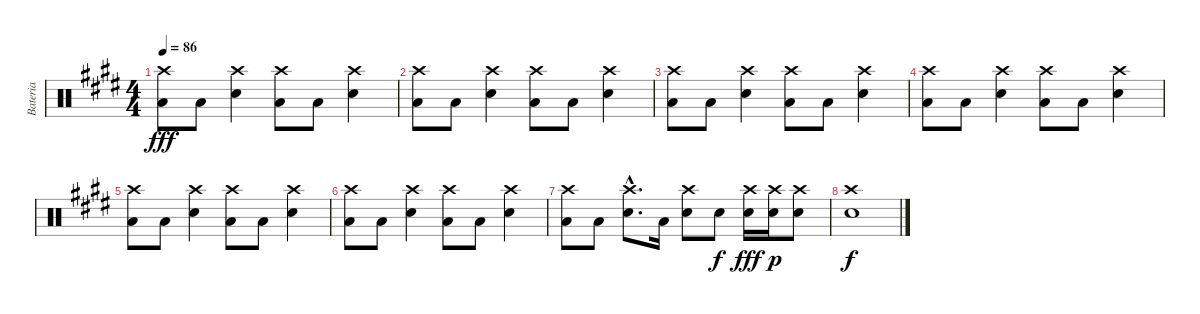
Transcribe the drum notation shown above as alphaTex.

\track ("Bateria" "Bateria") {instrument percussion}
\staff {score}
\articulation defaults
\ts (4 4)
\tempo 86
\clef neutral
\ks e
("Crash high (hit)" "Low Floor Tom (hit)").8{dy fff} "Low Floor Tom (hit)".8 ("Crash high (hit)" "Electric Snare (hit)").4 ("Crash high (hit)" "Low Floor Tom (hit)").8 "Low Floor Tom (hit)".8 ("Crash high (hit)" "Electric Snare (hit)").4 |
("Crash high (hit)" "Low Floor Tom (hit)").8 "Low Floor Tom (hit)".8 ("Crash high (hit)" "Electric Snare (hit)").4 ("Crash high (hit)" "Low Floor Tom (hit)").8 "Low Floor Tom (hit)".8 ("Crash high (hit)" "Electric Snare (hit)").4 |
("Crash high (hit)" "Low Floor Tom (hit)").8 "Low Floor Tom (hit)".8 ("Crash high (hit)" "Electric Snare (hit)").4 ("Crash high (hit)" "Low Floor Tom (hit)").8 "Low Floor Tom (hit)".8 ("Crash high (hit)" "Electric Snare (hit)").4 |
("Crash high (hit)" "Low Floor Tom (hit)").8 "Low Floor Tom (hit)".8 ("Crash high (hit)" "Electric Snare (hit)").4 ("Crash high (hit)" "Low Floor Tom (hit)").8 "Low Floor Tom (hit)".8 ("Crash high (hit)" "Electric Snare (hit)").4 |
("Crash high (hit)" "Low Floor Tom (hit)").8 "Low Floor Tom (hit)".8 ("Crash high (hit)" "Electric Snare (hit)").4 ("Crash high (hit)" "Low Floor Tom (hit)").8 "Low Floor Tom (hit)".8 ("Crash high (hit)" "Electric Snare (hit)").4 |
("Crash high (hit)" "Low Floor Tom (hit)").8 "Low Floor Tom (hit)".8 ("Crash high (hit)" "Electric Snare (hit)").4 ("Crash high (hit)" "Low Floor Tom (hit)").8 "Low Floor Tom (hit)".8 ("Crash high (hit)" "Electric Snare (hit)").4 |
("Crash high (hit)" "Low Floor Tom (hit)").8 "Low Floor Tom (hit)".8 ("Crash high (hit)"{hac} "Electric Snare (hit)"{hac}).8{d} "Low Floor Tom (hit)".16 ("Crash high (hit)" "Electric Snare (hit)").8 "Electric Snare (hit)".8{dy f} ("Crash high (hit)" "Electric Snare (hit)").16{dy fff} ("Crash high (hit)" "Electric Snare (hit)").16{dy p} ("Crash high (hit)" "Electric Snare (hit)").8 |
("Crash high (hit)" "Electric Snare (hit)").1{dy f}
